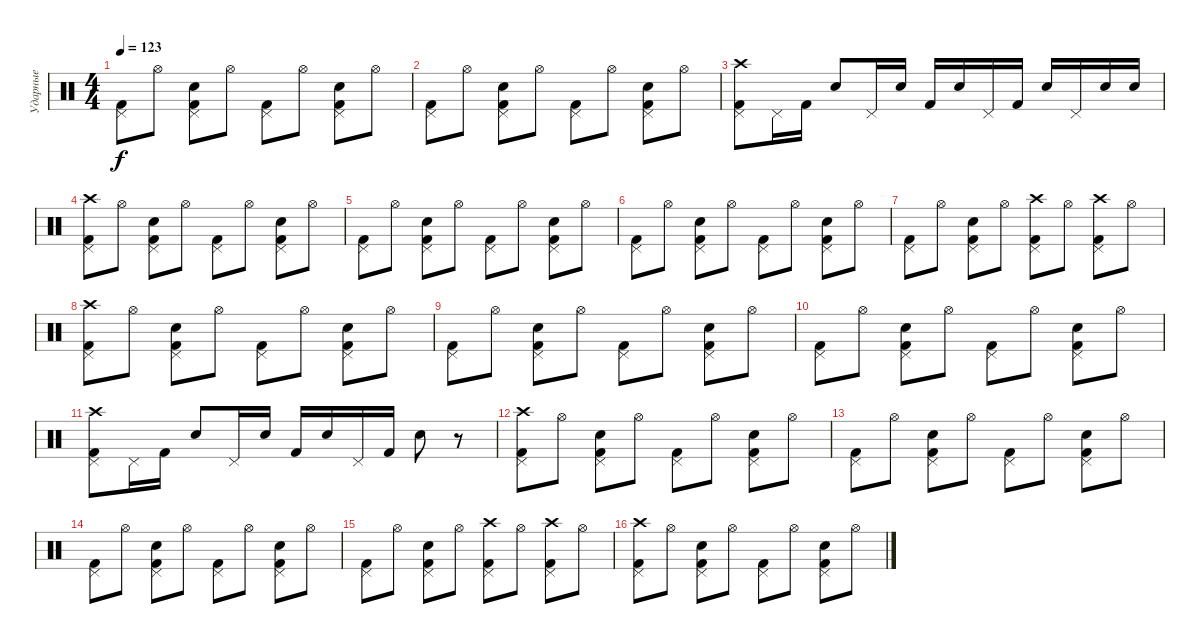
\track ("Ударные" "Ударные") {instrument percussion}
\staff {score}
\articulation defaults
\ts (4 4)
\tempo 123
\clef neutral
\ks c
("Kick (hit) 2" "Pedal Hi-Hat (hit)").8{dy f} "Hi-Hat (open)".8 ("Kick (hit) 2" "Pedal Hi-Hat (hit)" "Hand Clap (hit)").8 "Hi-Hat (open)".8 ("Kick (hit) 2" "Pedal Hi-Hat (hit)").8 "Hi-Hat (open)".8 ("Kick (hit) 2" "Pedal Hi-Hat (hit)" "Hand Clap (hit)").8 "Hi-Hat (open)".8 |
("Kick (hit) 2" "Pedal Hi-Hat (hit)").8 "Hi-Hat (open)".8 ("Kick (hit) 2" "Pedal Hi-Hat (hit)" "Hand Clap (hit)").8 "Hi-Hat (open)".8 ("Kick (hit) 2" "Pedal Hi-Hat (hit)").8 "Hi-Hat (open)".8 ("Kick (hit) 2" "Pedal Hi-Hat (hit)" "Hand Clap (hit)").8 "Hi-Hat (open)".8 |
("Kick (hit) 2" "Pedal Hi-Hat (hit)" "Crash high (hit)").8 "Pedal Hi-Hat (hit)".16 "Kick (hit) 2".16 "Snare (hit) 2".8 "Pedal Hi-Hat (hit)".16 "Snare (hit) 2".16 "Kick (hit) 2".16 "Snare (hit) 2".16 "Pedal Hi-Hat (hit)".16 "Kick (hit) 2".16 "Snare (hit) 2".16 "Pedal Hi-Hat (hit)".16 "Snare (hit) 2".16 "Snare (hit) 2".16 |
("Kick (hit) 2" "Pedal Hi-Hat (hit)" "Crash high (hit)").8 "Hi-Hat (open)".8 ("Kick (hit) 2" "Pedal Hi-Hat (hit)" "Hand Clap (hit)").8 "Hi-Hat (open)".8 ("Kick (hit) 2" "Pedal Hi-Hat (hit)").8 "Hi-Hat (open)".8 ("Kick (hit) 2" "Pedal Hi-Hat (hit)" "Hand Clap (hit)").8 "Hi-Hat (open)".8 |
("Kick (hit) 2" "Pedal Hi-Hat (hit)").8 "Hi-Hat (open)".8 ("Kick (hit) 2" "Pedal Hi-Hat (hit)" "Hand Clap (hit)").8 "Hi-Hat (open)".8 ("Kick (hit) 2" "Pedal Hi-Hat (hit)").8 "Hi-Hat (open)".8 ("Kick (hit) 2" "Pedal Hi-Hat (hit)" "Hand Clap (hit)").8 "Hi-Hat (open)".8 |
("Kick (hit) 2" "Pedal Hi-Hat (hit)").8 "Hi-Hat (open)".8 ("Kick (hit) 2" "Pedal Hi-Hat (hit)" "Hand Clap (hit)").8 "Hi-Hat (open)".8 ("Kick (hit) 2" "Pedal Hi-Hat (hit)").8 "Hi-Hat (open)".8 ("Kick (hit) 2" "Pedal Hi-Hat (hit)" "Hand Clap (hit)").8 "Hi-Hat (open)".8 |
("Kick (hit) 2" "Pedal Hi-Hat (hit)").8 "Hi-Hat (open)".8 ("Kick (hit) 2" "Pedal Hi-Hat (hit)" "Hand Clap (hit)").8 "Hi-Hat (open)".8 ("Kick (hit) 2" "Pedal Hi-Hat (hit)" "Crash high (hit)").8 "Hi-Hat (open)".8 ("Kick (hit) 2" "Pedal Hi-Hat (hit)" "Crash high (hit)").8 "Hi-Hat (open)".8 |
("Kick (hit) 2" "Pedal Hi-Hat (hit)" "Crash high (hit)").8 "Hi-Hat (open)".8 ("Kick (hit) 2" "Pedal Hi-Hat (hit)" "Hand Clap (hit)").8 "Hi-Hat (open)".8 ("Kick (hit) 2" "Pedal Hi-Hat (hit)").8 "Hi-Hat (open)".8 ("Kick (hit) 2" "Pedal Hi-Hat (hit)" "Hand Clap (hit)").8 "Hi-Hat (open)".8 |
("Kick (hit) 2" "Pedal Hi-Hat (hit)").8 "Hi-Hat (open)".8 ("Kick (hit) 2" "Pedal Hi-Hat (hit)" "Hand Clap (hit)").8 "Hi-Hat (open)".8 ("Kick (hit) 2" "Pedal Hi-Hat (hit)").8 "Hi-Hat (open)".8 ("Kick (hit) 2" "Pedal Hi-Hat (hit)" "Hand Clap (hit)").8 "Hi-Hat (open)".8 |
("Kick (hit) 2" "Pedal Hi-Hat (hit)").8 "Hi-Hat (open)".8 ("Kick (hit) 2" "Pedal Hi-Hat (hit)" "Hand Clap (hit)").8 "Hi-Hat (open)".8 ("Kick (hit) 2" "Pedal Hi-Hat (hit)").8 "Hi-Hat (open)".8 ("Kick (hit) 2" "Pedal Hi-Hat (hit)" "Hand Clap (hit)").8 "Hi-Hat (open)".8 |
("Kick (hit) 2" "Pedal Hi-Hat (hit)" "Crash high (hit)").8 "Pedal Hi-Hat (hit)".16 "Kick (hit) 2".16 "Snare (hit) 2".8 "Pedal Hi-Hat (hit)".16 "Snare (hit) 2".16 "Kick (hit) 2".16 "Snare (hit) 2".16 "Pedal Hi-Hat (hit)".16 "Kick (hit) 2".16 "Snare (hit) 2".8 r.8 |
("Kick (hit) 2" "Pedal Hi-Hat (hit)" "Crash high (hit)").8 "Hi-Hat (open)".8 ("Kick (hit) 2" "Pedal Hi-Hat (hit)" "Hand Clap (hit)").8 "Hi-Hat (open)".8 ("Kick (hit) 2" "Pedal Hi-Hat (hit)").8 "Hi-Hat (open)".8 ("Kick (hit) 2" "Pedal Hi-Hat (hit)" "Hand Clap (hit)").8 "Hi-Hat (open)".8 |
("Kick (hit) 2" "Pedal Hi-Hat (hit)").8 "Hi-Hat (open)".8 ("Kick (hit) 2" "Pedal Hi-Hat (hit)" "Hand Clap (hit)").8 "Hi-Hat (open)".8 ("Kick (hit) 2" "Pedal Hi-Hat (hit)").8 "Hi-Hat (open)".8 ("Kick (hit) 2" "Pedal Hi-Hat (hit)" "Hand Clap (hit)").8 "Hi-Hat (open)".8 |
("Kick (hit) 2" "Pedal Hi-Hat (hit)").8 "Hi-Hat (open)".8 ("Kick (hit) 2" "Pedal Hi-Hat (hit)" "Hand Clap (hit)").8 "Hi-Hat (open)".8 ("Kick (hit) 2" "Pedal Hi-Hat (hit)").8 "Hi-Hat (open)".8 ("Kick (hit) 2" "Pedal Hi-Hat (hit)" "Hand Clap (hit)").8 "Hi-Hat (open)".8 |
("Kick (hit) 2" "Pedal Hi-Hat (hit)").8 "Hi-Hat (open)".8 ("Kick (hit) 2" "Pedal Hi-Hat (hit)" "Hand Clap (hit)").8 "Hi-Hat (open)".8 ("Kick (hit) 2" "Pedal Hi-Hat (hit)" "Crash high (hit)").8 "Hi-Hat (open)".8 ("Kick (hit) 2" "Pedal Hi-Hat (hit)" "Crash high (hit)").8 "Hi-Hat (open)".8 |
("Kick (hit) 2" "Pedal Hi-Hat (hit)" "Crash high (hit)").8 "Hi-Hat (open)".8 ("Kick (hit) 2" "Pedal Hi-Hat (hit)" "Hand Clap (hit)").8 "Hi-Hat (open)".8 ("Kick (hit) 2" "Pedal Hi-Hat (hit)").8 "Hi-Hat (open)".8 ("Kick (hit) 2" "Pedal Hi-Hat (hit)" "Hand Clap (hit)").8 "Hi-Hat (open)".8
